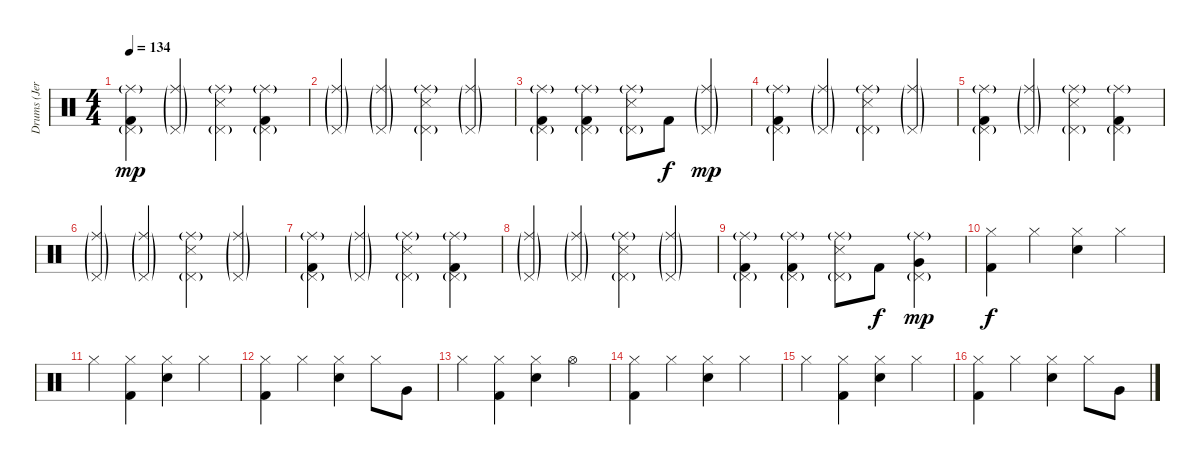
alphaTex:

\track ("Drums (Jeremy Taggart)" "Drums (Jer") {instrument percussion}
\staff
\articulation defaults
\ts (4 4)
\tempo 134
\clef neutral
\ks c
("Ride (middle)"{g} "Pedal Hi-Hat (hit)"{g} "Kick (hit) 2").4{dy mp} ("Ride (middle)"{g} "Pedal Hi-Hat (hit)"{g}).4 ("Ride (middle)"{g} "Pedal Hi-Hat (hit)"{g} "Snare (side stick) 3").4 ("Ride (middle)"{g} "Pedal Hi-Hat (hit)"{g} "Kick (hit) 2").4 |
("Ride (middle)"{g} "Pedal Hi-Hat (hit)"{g}).4 ("Ride (middle)"{g} "Pedal Hi-Hat (hit)"{g}).4 ("Ride (middle)"{g} "Pedal Hi-Hat (hit)"{g} "Snare (side stick) 3").4 ("Ride (middle)"{g} "Pedal Hi-Hat (hit)"{g}).4 |
("Ride (middle)"{g} "Pedal Hi-Hat (hit)"{g} "Kick (hit) 2").4 ("Ride (middle)"{g} "Pedal Hi-Hat (hit)"{g} "Kick (hit) 2").4 ("Ride (middle)"{g} "Pedal Hi-Hat (hit)"{g} "Snare (side stick) 3").8 "Kick (hit) 2".8{dy f} ("Ride (middle)"{g} "Pedal Hi-Hat (hit)"{g}).4{dy mp} |
("Ride (middle)"{g} "Pedal Hi-Hat (hit)"{g} "Kick (hit) 2").4 ("Ride (middle)"{g} "Pedal Hi-Hat (hit)"{g}).4 ("Ride (middle)"{g} "Pedal Hi-Hat (hit)"{g} "Snare (side stick) 3").4 ("Ride (middle)"{g} "Pedal Hi-Hat (hit)"{g}).4 |
("Ride (middle)"{g} "Pedal Hi-Hat (hit)"{g} "Kick (hit) 2").4 ("Ride (middle)"{g} "Pedal Hi-Hat (hit)"{g}).4 ("Ride (middle)"{g} "Pedal Hi-Hat (hit)"{g} "Snare (side stick) 3").4 ("Ride (middle)"{g} "Pedal Hi-Hat (hit)"{g} "Kick (hit) 2").4 |
("Ride (middle)"{g} "Pedal Hi-Hat (hit)"{g}).4 ("Ride (middle)"{g} "Pedal Hi-Hat (hit)"{g}).4 ("Ride (middle)"{g} "Pedal Hi-Hat (hit)"{g} "Snare (side stick) 3").4 ("Ride (middle)"{g} "Pedal Hi-Hat (hit)"{g}).4 |
("Ride (middle)"{g} "Pedal Hi-Hat (hit)"{g} "Kick (hit) 2").4 ("Ride (middle)"{g} "Pedal Hi-Hat (hit)"{g}).4 ("Ride (middle)"{g} "Pedal Hi-Hat (hit)"{g} "Snare (side stick) 3").4 ("Ride (middle)"{g} "Pedal Hi-Hat (hit)"{g} "Kick (hit) 2").4 |
("Ride (middle)"{g} "Pedal Hi-Hat (hit)"{g}).4 ("Ride (middle)"{g} "Pedal Hi-Hat (hit)"{g}).4 ("Ride (middle)"{g} "Pedal Hi-Hat (hit)"{g} "Snare (side stick) 3").4 ("Ride (middle)"{g} "Pedal Hi-Hat (hit)"{g}).4 |
("Ride (middle)"{g} "Pedal Hi-Hat (hit)"{g} "Kick (hit) 2").4 ("Ride (middle)"{g} "Pedal Hi-Hat (hit)"{g} "Kick (hit) 2").4 ("Ride (middle)"{g} "Pedal Hi-Hat (hit)"{g} "Snare (side stick) 3").8 "Kick (hit) 2".8{dy f} ("Ride (middle)"{g} "Pedal Hi-Hat (hit)"{g} "Very Low Tom (hit)").4{dy mp} |
("Hi-Hat (closed)" "Kick (hit) 2").4{dy f} "Hi-Hat (closed)".4 ("Hi-Hat (closed)" "Snare (hit) 2").4 "Hi-Hat (closed)".4 |
"Hi-Hat (closed)".4 ("Hi-Hat (closed)" "Kick (hit) 2").4 ("Hi-Hat (closed)" "Snare (hit) 2").4 "Hi-Hat (closed)".4 |
("Hi-Hat (closed)" "Kick (hit) 2").4 "Hi-Hat (closed)".4 ("Hi-Hat (closed)" "Snare (hit) 2").4 "Hi-Hat (closed)".8 "Very Low Tom (hit)".8 |
"Hi-Hat (closed)".4 ("Hi-Hat (closed)" "Kick (hit) 2").4 ("Hi-Hat (closed)" "Snare (hit) 2").4 "Hi-Hat (open)".4 |
("Hi-Hat (closed)" "Kick (hit) 2").4 "Hi-Hat (closed)".4 ("Hi-Hat (closed)" "Snare (hit) 2").4 "Hi-Hat (closed)".4 |
"Hi-Hat (closed)".4 ("Hi-Hat (closed)" "Kick (hit) 2").4 ("Hi-Hat (closed)" "Snare (hit) 2").4 "Hi-Hat (closed)".4 |
("Hi-Hat (closed)" "Kick (hit) 2").4 "Hi-Hat (closed)".4 ("Hi-Hat (closed)" "Snare (hit) 2").4 "Hi-Hat (closed)".8 "Very Low Tom (hit)".8
